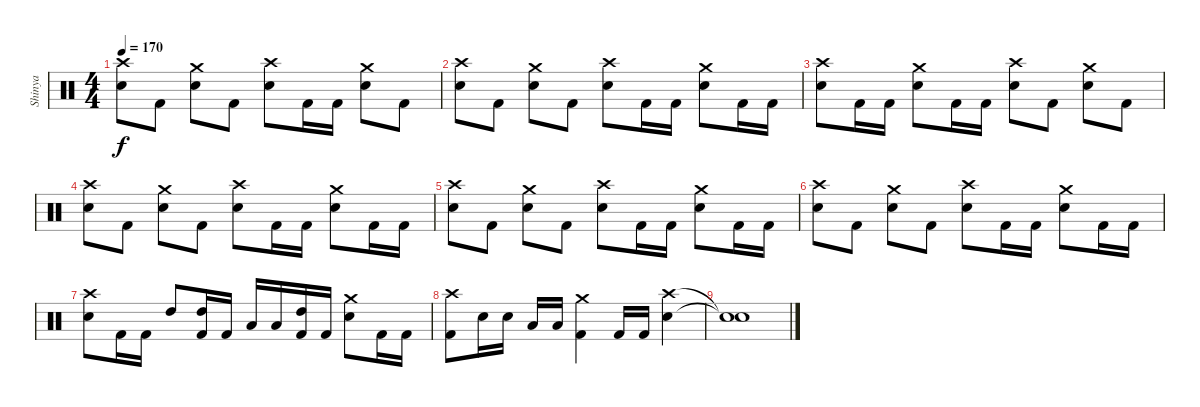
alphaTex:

\track ("Shinya" "Shinya") {instrument percussion}
\staff {score}
\articulation defaults
\ts (4 4)
\tempo 170
\clef neutral
\ks c
("Crash high (hit)" "Snare (hit) 2").8{dy f} "Kick (hit) 2".8 ("Crash medium (hit)" "Snare (hit) 2").8 "Kick (hit) 2".8 ("Crash high (hit)" "Snare (hit) 2").8 "Kick (hit) 2".16 "Kick (hit) 2".16 ("Crash medium (hit)" "Snare (hit) 2").8 "Kick (hit) 2".8 |
("Crash high (hit)" "Snare (hit) 2").8 "Kick (hit) 2".8 ("Crash medium (hit)" "Snare (hit) 2").8 "Kick (hit) 2".8 ("Crash high (hit)" "Snare (hit) 2").8 "Kick (hit) 2".16 "Kick (hit) 2".16 ("Crash medium (hit)" "Snare (hit) 2").8 "Kick (hit) 2".16 "Kick (hit) 2".16 |
("Crash high (hit)" "Snare (hit) 2").8 "Kick (hit) 2".16 "Kick (hit) 2".16 ("Crash medium (hit)" "Snare (hit) 2").8 "Kick (hit) 2".16 "Kick (hit) 2".16 ("Crash high (hit)" "Snare (hit) 2").8 "Kick (hit) 2".8 ("Crash medium (hit)" "Snare (hit) 2").8 "Kick (hit) 2".8 |
("Crash high (hit)" "Snare (hit) 2").8 "Kick (hit) 2".8 ("Crash medium (hit)" "Snare (hit) 2").8 "Kick (hit) 2".8 ("Crash high (hit)" "Snare (hit) 2").8 "Kick (hit) 2".16 "Kick (hit) 2".16 ("Crash medium (hit)" "Snare (hit) 2").8 "Kick (hit) 2".16 "Kick (hit) 2".16 |
("Crash high (hit)" "Snare (hit) 2").8 "Kick (hit) 2".8 ("Crash medium (hit)" "Snare (hit) 2").8 "Kick (hit) 2".8 ("Crash high (hit)" "Snare (hit) 2").8 "Kick (hit) 2".16 "Kick (hit) 2".16 ("Crash medium (hit)" "Snare (hit) 2").8 "Kick (hit) 2".16 "Kick (hit) 2".16 |
("Crash high (hit)" "Snare (hit) 2").8 "Kick (hit) 2".8 ("Crash medium (hit)" "Snare (hit) 2").8 "Kick (hit) 2".8 ("Crash high (hit)" "Snare (hit) 2").8 "Kick (hit) 2".16 "Kick (hit) 2".16 ("Crash medium (hit)" "Snare (hit) 2").8 "Kick (hit) 2".16 "Kick (hit) 2".16 |
("Crash high (hit)" "Snare (hit) 2").8 "Kick (hit) 2".16 "Kick (hit) 2".16 "High Tom (hit)".8 ("High Tom (hit)" "Kick (hit) 2").16 "Kick (hit) 2".16 "Low Tom (hit)".16 "Low Tom (hit)".16 ("High Tom (hit)" "Kick (hit) 2").16 "Kick (hit) 2".16 ("Crash medium (hit)" "Snare (hit) 2").8 "Kick (hit) 2".16 "Kick (hit) 2".16 |
("Crash high (hit)" "Kick (hit) 2").8 "Snare (hit) 2".16 "Snare (hit) 2".16 "Low Tom (hit)".16 "Low Tom (hit)".16 ("Crash medium (hit)" "Kick (hit) 2").4 "Kick (hit) 2".16 "Kick (hit) 2".16 ("Crash high (hit)" "Snare (hit) 2").4 |
("Snare (hit)"{t} "Snare (hit)"{t}).1
